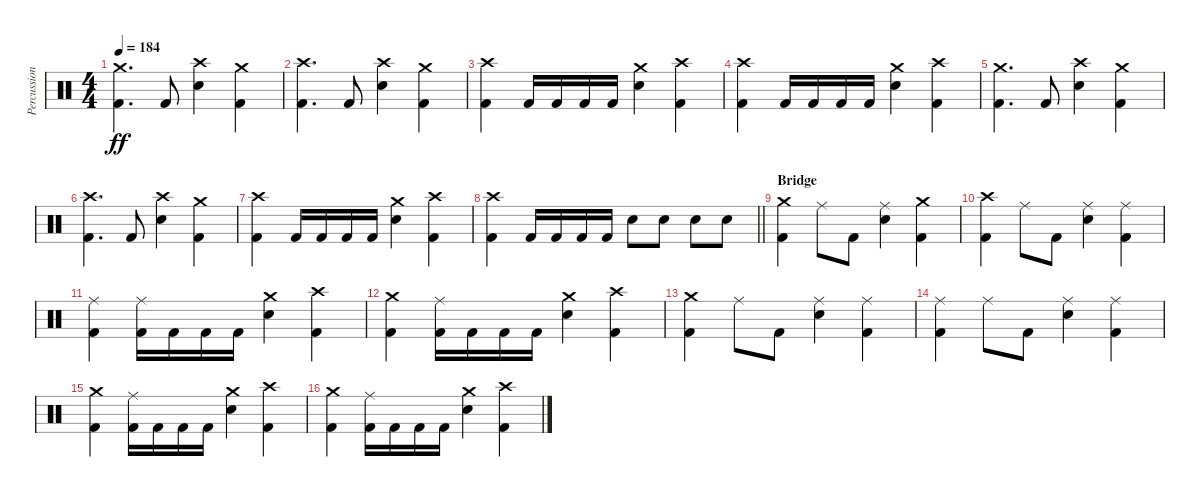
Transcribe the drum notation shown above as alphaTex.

\track ("Percussion" "Percussion") {instrument percussion}
\staff {score}
\articulation defaults
\ts (4 4)
\tempo 184
\clef neutral
\ks c
("Crash medium (hit)" "Kick (hit) 2").4{d dy ff} "Kick (hit) 2".8 ("Crash high (hit)" "Electric Snare (hit)").4 ("Crash medium (hit)" "Kick (hit) 2").4 |
("Crash high (hit)" "Kick (hit) 2").4{d} "Kick (hit) 2".8 ("Crash high (hit)" "Electric Snare (hit)").4 ("Crash medium (hit)" "Kick (hit) 2").4 |
("Crash high (hit)" "Kick (hit) 2").4 "Kick (hit) 2".16 "Kick (hit) 2".16 "Kick (hit) 2".16 "Kick (hit) 2".16 ("Crash medium (hit)" "Electric Snare (hit)").4 ("Crash high (hit)" "Kick (hit) 2").4 |
("Crash high (hit)" "Kick (hit) 2").4 "Kick (hit) 2".16 "Kick (hit) 2".16 "Kick (hit) 2".16 "Kick (hit) 2".16 ("Crash medium (hit)" "Electric Snare (hit)").4 ("Crash high (hit)" "Kick (hit) 2").4 |
("Crash medium (hit)" "Kick (hit) 2").4{d} "Kick (hit) 2".8 ("Crash high (hit)" "Electric Snare (hit)").4 ("Crash medium (hit)" "Kick (hit) 2").4 |
("Crash high (hit)" "Kick (hit) 2").4{d} "Kick (hit) 2".8 ("Crash high (hit)" "Electric Snare (hit)").4 ("Crash medium (hit)" "Kick (hit) 2").4 |
("Crash high (hit)" "Kick (hit) 2").4 "Kick (hit) 2".16 "Kick (hit) 2".16 "Kick (hit) 2".16 "Kick (hit) 2".16 ("Crash medium (hit)" "Electric Snare (hit)").4 ("Crash high (hit)" "Kick (hit) 2").4 |
\barLineRight lightlight
("Crash high (hit)" "Kick (hit) 2").4 "Kick (hit) 2".16 "Kick (hit) 2".16 "Kick (hit) 2".16 "Kick (hit) 2".16 "Electric Snare (hit)".8 "Electric Snare (hit)".8 "Electric Snare (hit)".8 "Electric Snare (hit)".8 |
\section ("" "Bridge")
("Crash medium (hit)" "Kick (hit) 2").4 "Ride (middle)".8 "Kick (hit) 2".8 ("Ride (middle)" "Electric Snare (hit)").4 ("Crash medium (hit)" "Kick (hit) 2").4 |
("Crash high (hit)" "Kick (hit) 2").4 "Ride (middle)".8 "Kick (hit) 2".8 ("Ride (middle)" "Electric Snare (hit)").4 ("Ride (middle)" "Kick (hit) 2").4 |
("Ride (middle)" "Kick (hit) 2").4 ("Ride (middle)" "Kick (hit) 2").16 "Kick (hit) 2".16 "Kick (hit) 2".16 "Kick (hit) 2".16 ("Crash medium (hit)" "Electric Snare (hit)").4 ("Crash high (hit)" "Kick (hit) 2").4 |
("Crash medium (hit)" "Kick (hit) 2").4 ("Ride (middle)" "Kick (hit) 2").16 "Kick (hit) 2".16 "Kick (hit) 2".16 "Kick (hit) 2".16 ("Crash medium (hit)" "Electric Snare (hit)").4 ("Crash high (hit)" "Kick (hit) 2").4 |
("Crash medium (hit)" "Kick (hit) 2").4 "Ride (middle)".8 "Kick (hit) 2".8 ("Ride (middle)" "Electric Snare (hit)").4 ("Ride (middle)" "Kick (hit) 2").4 |
("Ride (middle)" "Kick (hit) 2").4 "Ride (middle)".8 "Kick (hit) 2".8 ("Ride (middle)" "Electric Snare (hit)").4 ("Ride (middle)" "Kick (hit) 2").4 |
("Crash medium (hit)" "Kick (hit) 2").4 ("Ride (middle)" "Kick (hit) 2").16 "Kick (hit) 2".16 "Kick (hit) 2".16 "Kick (hit) 2".16 ("Crash medium (hit)" "Electric Snare (hit)").4 ("Crash high (hit)" "Kick (hit) 2").4 |
("Crash medium (hit)" "Kick (hit) 2").4 ("Ride (middle)" "Kick (hit) 2").16 "Kick (hit) 2".16 "Kick (hit) 2".16 "Kick (hit) 2".16 ("Crash medium (hit)" "Electric Snare (hit)").4 ("Crash high (hit)" "Kick (hit) 2").4
